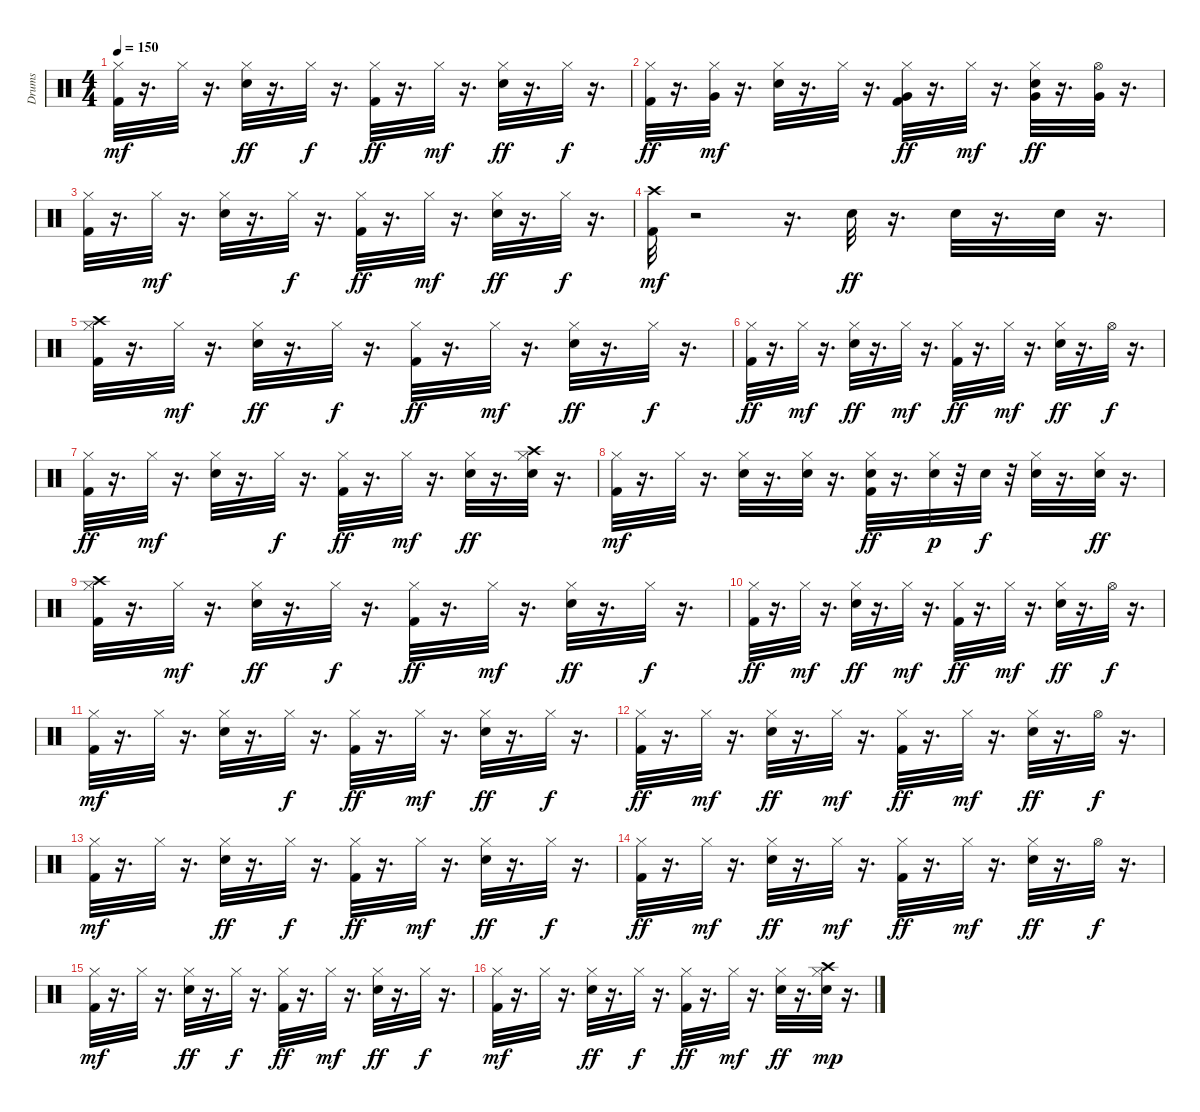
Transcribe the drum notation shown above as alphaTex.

\track ("Drums" "Drums") {instrument percussion}
\staff {score}
\articulation defaults
\ts (4 4)
\tempo 150
\clef neutral
\ks c
("Kick (hit) 2" "Hi-Hat (closed)").32{dy mf} r.16{d} "Hi-Hat (closed)".32 r.16{d} ("Hi-Hat (closed)" "Snare (hit) 2").32{dy ff} r.16{d} "Hi-Hat (closed)".32{dy f} r.16{d} ("Hi-Hat (closed)" "Kick (hit) 2").32{dy ff} r.16{d} "Hi-Hat (closed)".32{dy mf} r.16{d} ("Hi-Hat (closed)" "Snare (hit) 2").32{dy ff} r.16{d} "Hi-Hat (closed)".32{dy f} r.16{d} |
("Hi-Hat (closed)" "Kick (hit) 2").32{dy ff} r.16{d} ("Hi-Hat (closed)" "Very Low Tom (hit)").32{dy mf} r.16{d} ("Snare (hit) 2" "Hi-Hat (closed)").32 r.16{d} "Hi-Hat (closed)".32 r.16{d} ("Kick (hit) 2" "Hi-Hat (closed)" "Very Low Tom (hit)").32{dy ff} r.16{d} "Hi-Hat (closed)".32{dy mf} r.16{d} ("Hi-Hat (closed)" "Snare (hit) 2" "Very Low Tom (hit)").32{dy ff} r.16{d} ("Very Low Tom (hit)" "Hi-Hat (open)").32 r.16{d} |
("Hi-Hat (closed)" "Kick (hit) 2").32 r.16{d} "Hi-Hat (closed)".32{dy mf} r.16{d} ("Snare (hit) 2" "Hi-Hat (closed)").32 r.16{d} "Hi-Hat (closed)".32{dy f} r.16{d} ("Hi-Hat (closed)" "Kick (hit) 2").32{dy ff} r.16{d} "Hi-Hat (closed)".32{dy mf} r.16{d} ("Hi-Hat (closed)" "Snare (hit) 2").32{dy ff} r.16{d} "Hi-Hat (closed)".32{dy f} r.16{d} |
("Kick (hit) 2" "Crash high (hit)").32{dy mf} r.2 r.16{d} "Snare (hit) 2".32{dy ff} r.16{d} "Snare (hit) 2".32 r.16{d} "Snare (hit) 2".32 r.16{d} |
("Hi-Hat (closed)" "Kick (hit) 2" "Crash high (hit)").32 r.16{d} "Hi-Hat (closed)".32{dy mf} r.16{d} ("Hi-Hat (closed)" "Snare (hit) 2").32{dy ff} r.16{d} "Hi-Hat (closed)".32{dy f} r.16{d} ("Kick (hit) 2" "Hi-Hat (closed)").32{dy ff} r.16{d} "Hi-Hat (closed)".32{dy mf} r.16{d} ("Hi-Hat (closed)" "Snare (hit) 2").32{dy ff} r.16{d} "Hi-Hat (closed)".32{dy f} r.16{d} |
("Kick (hit) 2" "Hi-Hat (closed)").32{dy ff} r.16{d} "Hi-Hat (closed)".32{dy mf} r.16{d} ("Hi-Hat (closed)" "Snare (hit) 2").32{dy ff} r.16{d} "Hi-Hat (closed)".32{dy mf} r.16{d} ("Kick (hit) 2" "Hi-Hat (closed)").32{dy ff} r.16{d} "Hi-Hat (closed)".32{dy mf} r.16{d} ("Hi-Hat (closed)" "Snare (hit) 2").32{dy ff} r.16{d} "Hi-Hat (open)".32{dy f} r.16{d} |
("Hi-Hat (closed)" "Kick (hit) 2").32{dy ff} r.16{d} "Hi-Hat (closed)".32{dy mf} r.16{d} ("Snare (hit) 2" "Hi-Hat (closed)").32 r.16{d} "Hi-Hat (closed)".32{dy f} r.16{d} ("Kick (hit) 2" "Hi-Hat (closed)").32{dy ff} r.16{d} "Hi-Hat (closed)".32{dy mf} r.16{d} ("Snare (hit) 2" "Hi-Hat (closed)").32{dy ff} r.16{d} ("Hi-Hat (closed)" "Snare (hit) 2" "Crash high (hit)").32 r.16{d} |
("Kick (hit) 2" "Hi-Hat (closed)").32{dy mf} r.16{d} "Hi-Hat (closed)".32 r.16{d} ("Hi-Hat (closed)" "Snare (hit) 2").32 r.16{d} ("Hi-Hat (closed)" "Snare (hit) 2").32 r.16{d} ("Kick (hit) 2" "Snare (hit) 2" "Hi-Hat (closed)").32{dy ff} r.16{d} ("Hi-Hat (closed)" "Snare (hit) 2").32{dy p} r.32 "Snare (hit) 2".32{dy f} r.32 ("Snare (hit) 2" "Hi-Hat (closed)").32 r.16{d} ("Snare (hit) 2" "Hi-Hat (closed)").32{dy ff} r.16{d} |
("Hi-Hat (closed)" "Kick (hit) 2" "Crash high (hit)").32 r.16{d} "Hi-Hat (closed)".32{dy mf} r.16{d} ("Hi-Hat (closed)" "Snare (hit) 2").32{dy ff} r.16{d} "Hi-Hat (closed)".32{dy f} r.16{d} ("Kick (hit) 2" "Hi-Hat (closed)").32{dy ff} r.16{d} "Hi-Hat (closed)".32{dy mf} r.16{d} ("Snare (hit) 2" "Hi-Hat (closed)").32{dy ff} r.16{d} "Hi-Hat (closed)".32{dy f} r.16{d} |
("Kick (hit) 2" "Hi-Hat (closed)").32{dy ff} r.16{d} "Hi-Hat (closed)".32{dy mf} r.16{d} ("Hi-Hat (closed)" "Snare (hit) 2").32{dy ff} r.16{d} "Hi-Hat (closed)".32{dy mf} r.16{d} ("Kick (hit) 2" "Hi-Hat (closed)").32{dy ff} r.16{d} "Hi-Hat (closed)".32{dy mf} r.16{d} ("Hi-Hat (closed)" "Snare (hit) 2").32{dy ff} r.16{d} "Hi-Hat (open)".32{dy f} r.16{d} |
("Kick (hit) 2" "Hi-Hat (closed)").32{dy mf} r.16{d} "Hi-Hat (closed)".32 r.16{d} ("Snare (hit) 2" "Hi-Hat (closed)").32 r.16{d} "Hi-Hat (closed)".32{dy f} r.16{d} ("Kick (hit) 2" "Hi-Hat (closed)").32{dy ff} r.16{d} "Hi-Hat (closed)".32{dy mf} r.16{d} ("Hi-Hat (closed)" "Snare (hit) 2").32{dy ff} r.16{d} "Hi-Hat (closed)".32{dy f} r.16{d} |
("Hi-Hat (closed)" "Kick (hit) 2").32{dy ff} r.16{d} "Hi-Hat (closed)".32{dy mf} r.16{d} ("Hi-Hat (closed)" "Snare (hit) 2").32{dy ff} r.16{d} "Hi-Hat (closed)".32{dy mf} r.16{d} ("Hi-Hat (closed)" "Kick (hit) 2").32{dy ff} r.16{d} "Hi-Hat (closed)".32{dy mf} r.16{d} ("Snare (hit) 2" "Hi-Hat (closed)").32{dy ff} r.16{d} "Hi-Hat (open)".32{dy f} r.16{d} |
("Kick (hit) 2" "Hi-Hat (closed)").32{dy mf} r.16{d} "Hi-Hat (closed)".32 r.16{d} ("Hi-Hat (closed)" "Snare (hit) 2").32{dy ff} r.16{d} "Hi-Hat (closed)".32{dy f} r.16{d} ("Hi-Hat (closed)" "Kick (hit) 2").32{dy ff} r.16{d} "Hi-Hat (closed)".32{dy mf} r.16{d} ("Snare (hit) 2" "Hi-Hat (closed)").32{dy ff} r.16{d} "Hi-Hat (closed)".32{dy f} r.16{d} |
("Kick (hit) 2" "Hi-Hat (closed)").32{dy ff} r.16{d} "Hi-Hat (closed)".32{dy mf} r.16{d} ("Hi-Hat (closed)" "Snare (hit) 2").32{dy ff} r.16{d} "Hi-Hat (closed)".32{dy mf} r.16{d} ("Hi-Hat (closed)" "Kick (hit) 2").32{dy ff} r.16{d} "Hi-Hat (closed)".32{dy mf} r.16{d} ("Snare (hit) 2" "Hi-Hat (closed)").32{dy ff} r.16{d} "Hi-Hat (open)".32{dy f} r.16{d} |
("Kick (hit) 2" "Hi-Hat (closed)").32{dy mf} r.16{d} "Hi-Hat (closed)".32 r.16{d} ("Hi-Hat (closed)" "Snare (hit) 2").32{dy ff} r.16{d} "Hi-Hat (closed)".32{dy f} r.16{d} ("Hi-Hat (closed)" "Kick (hit) 2").32{dy ff} r.16{d} "Hi-Hat (closed)".32{dy mf} r.16{d} ("Snare (hit) 2" "Hi-Hat (closed)").32{dy ff} r.16{d} "Hi-Hat (closed)".32{dy f} r.16{d} |
("Kick (hit) 2" "Hi-Hat (closed)").32{dy mf} r.16{d} "Hi-Hat (closed)".32 r.16{d} ("Hi-Hat (closed)" "Snare (hit) 2").32{dy ff} r.16{d} "Hi-Hat (closed)".32{dy f} r.16{d} ("Kick (hit) 2" "Hi-Hat (closed)").32{dy ff} r.16{d} "Hi-Hat (closed)".32{dy mf} r.16{d} ("Snare (hit) 2" "Hi-Hat (closed)").32{dy ff} r.16{d} ("Hi-Hat (closed)" "Snare (hit) 2" "Crash high (hit)").32{dy mp} r.16{d}
